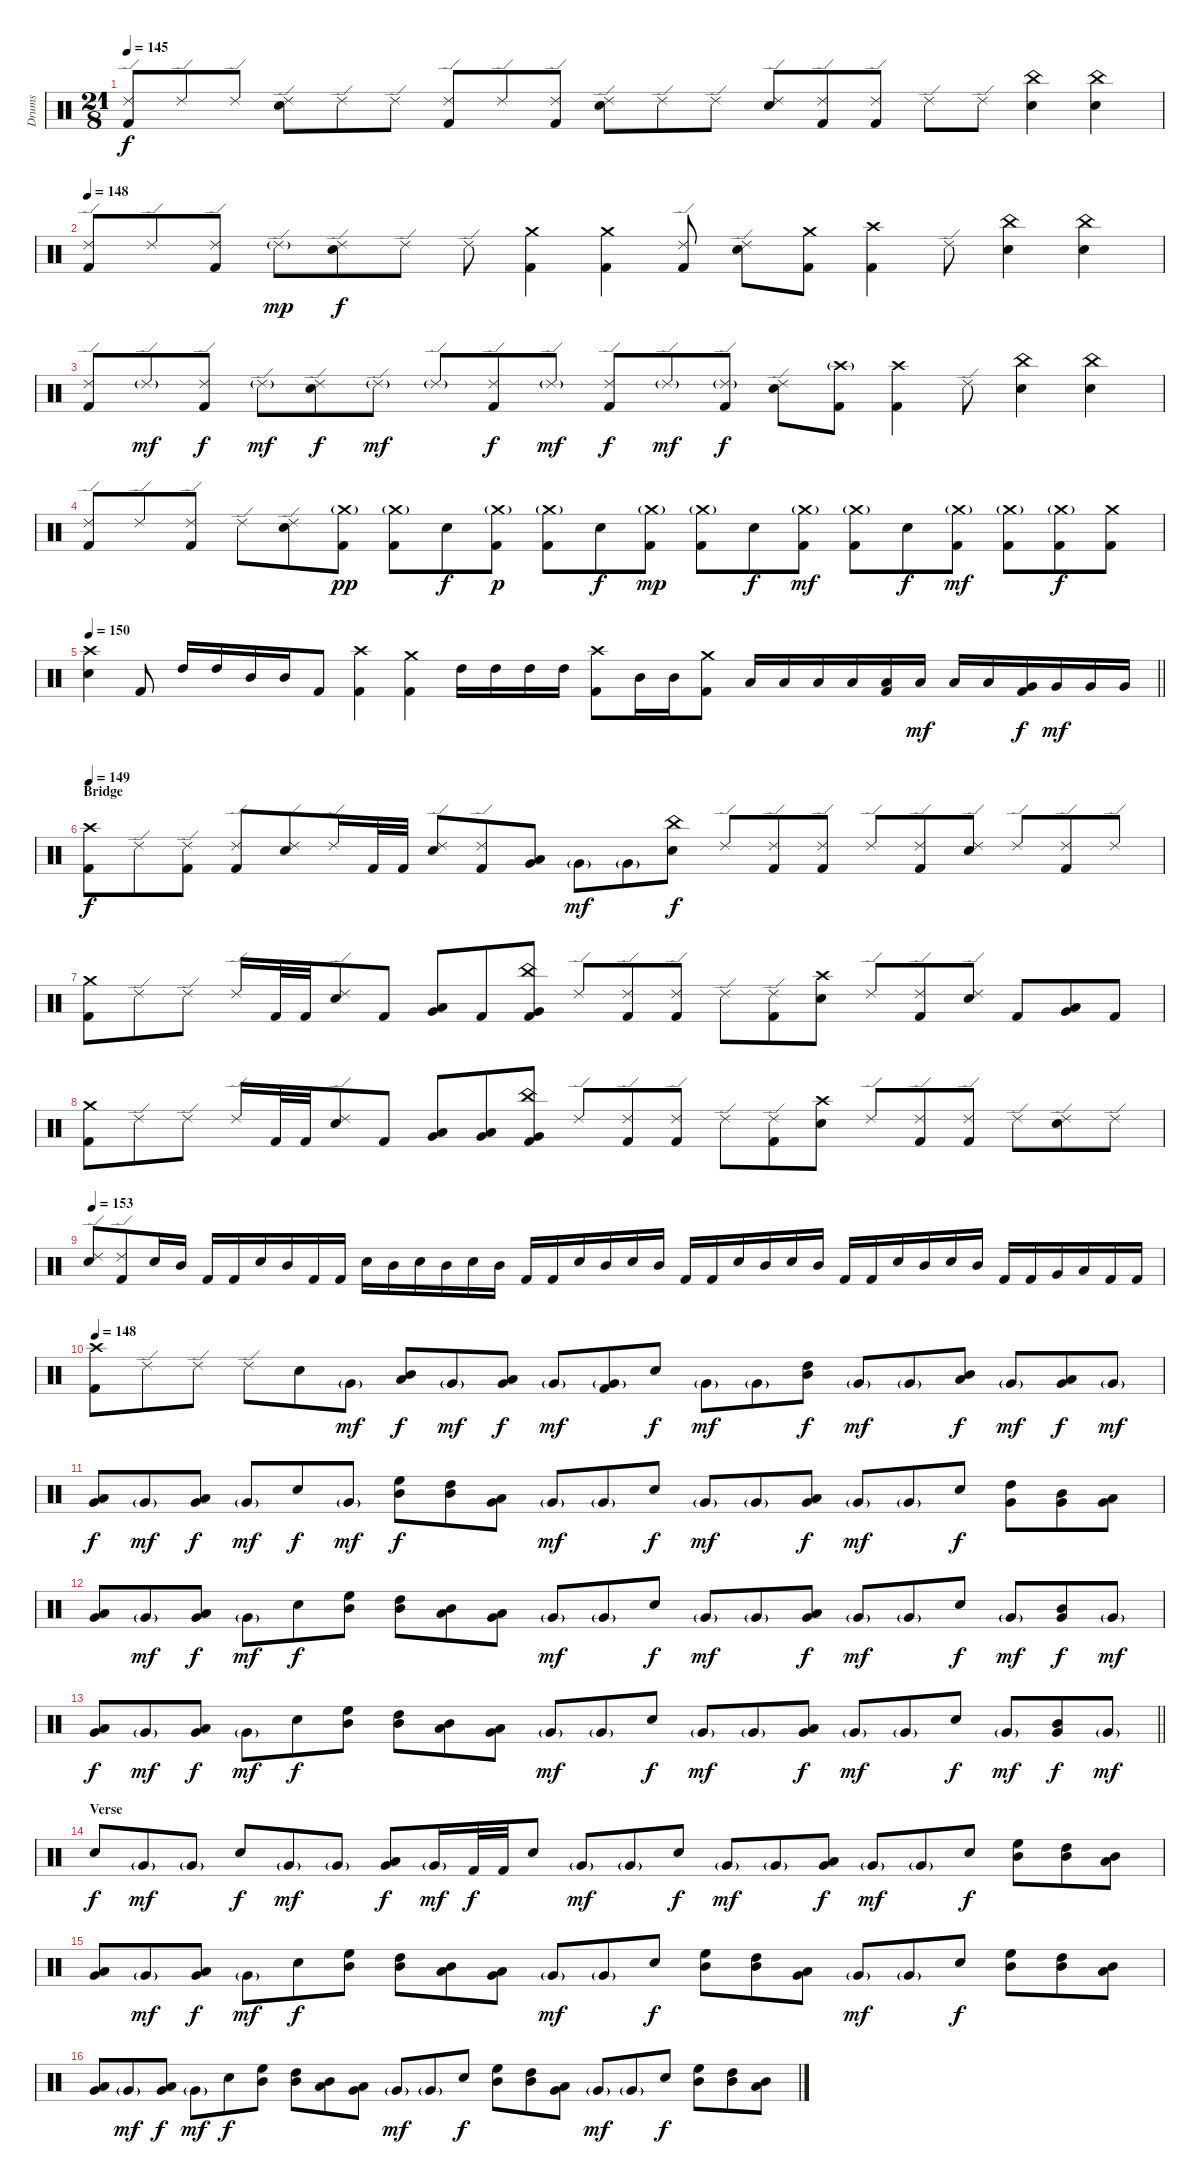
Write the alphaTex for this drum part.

\track ("Drums" "Drums") {instrument percussion}
\staff {score}
\articulation defaults
\ts (21 8)
\tempo 145
\clef neutral
\ks c
("Ride (edge) 2" "Kick (hit) 2").8{dy f} "Ride (edge) 2".8 "Ride (edge) 2".8 ("Ride (edge) 2" "Snare (hit) 2").8 "Ride (edge) 2".8 "Ride (edge) 2".8 ("Ride (edge) 2" "Kick (hit) 2").8 "Ride (edge) 2".8 ("Ride (edge) 2" "Kick (hit) 2").8 ("Ride (edge) 2" "Snare (hit) 2").8 "Ride (edge) 2".8 "Ride (edge) 2".8 ("Ride (edge) 2" "Snare (hit) 2").8 ("Ride (edge) 2" "Kick (hit) 2").8 ("Ride (edge) 2" "Kick (hit) 2").8 "Ride (edge) 2".8 "Ride (edge) 2".8 ("China (hit)" "Snare (hit) 2").4 ("China (hit)" "Snare (hit) 2").4 |
\tempo 148
("Ride (edge) 2" "Kick (hit) 2").8 "Ride (edge) 2".8 ("Ride (edge) 2" "Kick (hit) 2").8 "Ride (edge) 2"{g}.8{dy mp} ("Ride (edge) 2" "Snare (hit) 2").8{dy f} "Ride (edge) 2".8 "Ride (edge) 2".8 ("Crash medium (hit)" "Kick (hit) 2").4 ("Crash medium (hit)" "Kick (hit) 2").4 ("Ride (edge) 2" "Kick (hit) 2").8 ("Ride (edge) 2" "Snare (hit) 2").8 ("Crash medium (hit)" "Kick (hit) 2").8 ("Crash high (hit)" "Kick (hit) 2").4 "Ride (edge) 2".8 ("China (hit)" "Snare (hit) 2").4 ("China (hit)" "Snare (hit) 2").4 |
("Ride (edge) 2" "Kick (hit) 2").8 "Ride (edge) 2"{g}.8{dy mf} ("Ride (edge) 2" "Kick (hit) 2").8{dy f} "Ride (edge) 2"{g}.8{dy mf} ("Ride (edge) 2" "Snare (hit) 2").8{dy f} "Ride (edge) 2"{g}.8{dy mf} "Ride (edge) 2"{g}.8 ("Ride (edge) 2" "Kick (hit) 2").8{dy f} "Ride (edge) 2"{g}.8{dy mf} ("Ride (edge) 2" "Kick (hit) 2").8{dy f} "Ride (edge) 2"{g}.8{dy mf} ("Ride (edge) 2"{g} "Kick (hit) 2").8{dy f} ("Ride (edge) 2" "Snare (hit) 2").8 ("Crash high (hit)"{g} "Kick (hit) 2").8 ("Crash high (hit)" "Kick (hit) 2").4 "Ride (edge) 2".8 ("China (hit)" "Snare (hit) 2").4 ("China (hit)" "Snare (hit) 2").4 |
("Ride (edge) 2" "Kick (hit) 2").8 "Ride (edge) 2".8 ("Ride (edge) 2" "Kick (hit) 2").8 "Ride (edge) 2".8 ("Ride (edge) 2" "Snare (hit) 2").8 ("Crash medium (hit)"{g} "Kick (hit) 2").8{dy pp} ("Crash medium (hit)"{g} "Kick (hit) 2").8 "Snare (hit) 2".8{dy f} ("Crash medium (hit)"{g} "Kick (hit) 2").8{dy p} ("Crash medium (hit)"{g} "Kick (hit) 2").8 "Snare (hit) 2".8{dy f} ("Crash medium (hit)"{g} "Kick (hit) 2").8{dy mp} ("Crash medium (hit)"{g} "Kick (hit) 2").8 "Snare (hit) 2".8{dy f} ("Crash medium (hit)"{g} "Kick (hit) 2").8{dy mf} ("Crash medium (hit)"{g} "Kick (hit) 2").8 "Snare (hit) 2".8{dy f} ("Crash medium (hit)"{g} "Kick (hit) 2").8{dy mf} ("Crash medium (hit)"{g} "Kick (hit) 2").8 ("Crash medium (hit)"{g} "Kick (hit) 2").8{dy f} ("Crash medium (hit)" "Kick (hit) 2").8 |
\tempo 150
\barLineRight lightlight
("Crash high (hit)" "Snare (hit) 2").4 "Kick (hit) 2".8 "High Tom (hit)".16 "High Tom (hit)".16 "Mid Tom (hit)".16 "Mid Tom (hit)".16 "Kick (hit) 2".8 ("Crash high (hit)" "Kick (hit) 2").4 ("Crash medium (hit)" "Kick (hit) 2").4 "High Tom (hit)".16 "High Tom (hit)".16 "High Tom (hit)".16 "High Tom (hit)".16 ("Crash high (hit)" "Kick (hit) 2").8 "Mid Tom (hit)".16 "Mid Tom (hit)".16 ("Crash medium (hit)" "Kick (hit) 2").8 "Low Tom (hit)".16 "Low Tom (hit)".16 "Low Tom (hit)".16 "Low Tom (hit)".16 ("Low Tom (hit)" "Kick (hit) 2").16 "Low Tom (hit)".16{dy mf} "Low Tom (hit)".16 "Low Tom (hit)".16 ("Very Low Tom (hit)" "Kick (hit) 2").16{dy f} "Very Low Tom (hit)".16{dy mf} "Very Low Tom (hit)".16 "Very Low Tom (hit)".16 |
\section ("" "Bridge")
\tempo 149
("Crash high (hit)" "Kick (hit) 2").8{dy f} "Ride (edge) 2".8 ("Ride (edge) 2" "Kick (hit) 2").8 ("Ride (edge) 2" "Kick (hit) 2").8 ("Ride (edge) 2" "Snare (hit) 2").8 "Ride (edge) 2".16 "Kick (hit) 2".32 "Kick (hit) 2".32 ("Ride (edge) 2" "Snare (hit) 2").8 ("Ride (edge) 2" "Kick (hit) 2").8 ("Low Tom (hit)" "Very Low Tom (hit)").8 "Very Low Tom (hit)"{g}.8{dy mf} "Very Low Tom (hit)"{g}.8 ("China (hit)" "Snare (hit) 2").8{dy f} "Ride (edge) 2".8 ("Ride (edge) 2" "Kick (hit) 2").8 ("Ride (edge) 2" "Kick (hit) 2").8 "Ride (edge) 2".8 ("Ride (edge) 2" "Kick (hit) 2").8 ("Ride (edge) 2" "Snare (hit) 2").8 "Ride (edge) 2".8 ("Ride (edge) 2" "Kick (hit) 2").8 "Ride (edge) 2".8 |
("Crash medium (hit)" "Kick (hit) 2").8 "Ride (edge) 2".8 "Ride (edge) 2".8 "Ride (edge) 2".16 "Kick (hit) 2".32 "Kick (hit) 2".32 ("Ride (edge) 2" "Snare (hit) 2").8 "Kick (hit) 2".8 ("Low Tom (hit)" "Very Low Tom (hit)").8 "Kick (hit) 2".8 ("China (hit)" "Very Low Tom (hit)" "Kick (hit) 2").8 "Ride (edge) 2".8 ("Ride (edge) 2" "Kick (hit) 2").8 ("Ride (edge) 2" "Kick (hit) 2").8 "Ride (edge) 2".8 ("Ride (edge) 2" "Kick (hit) 2").8 ("Crash high (hit)" "Snare (hit) 2").8 "Ride (edge) 2".8 ("Ride (edge) 2" "Kick (hit) 2").8 ("Ride (edge) 2" "Snare (hit) 2").8 "Kick (hit) 2".8 ("Low Tom (hit)" "Very Low Tom (hit)").8 "Kick (hit) 2".8 |
("Crash medium (hit)" "Kick (hit) 2").8 "Ride (edge) 2".8 "Ride (edge) 2".8 "Ride (edge) 2".16 "Kick (hit) 2".32 "Kick (hit) 2".32 ("Ride (edge) 2" "Snare (hit) 2").8 "Kick (hit) 2".8 ("Low Tom (hit)" "Very Low Tom (hit)").8 ("Low Tom (hit)" "Very Low Tom (hit)").8 ("China (hit)" "Very Low Tom (hit)" "Kick (hit) 2").8 "Ride (edge) 2".8 ("Ride (edge) 2" "Kick (hit) 2").8 ("Ride (edge) 2" "Kick (hit) 2").8 "Ride (edge) 2".8 ("Ride (edge) 2" "Kick (hit) 2").8 ("Crash high (hit)" "Snare (hit) 2").8 "Ride (edge) 2".8 ("Ride (edge) 2" "Kick (hit) 2").8 ("Ride (edge) 2" "Kick (hit) 2").8 "Ride (edge) 2".8 ("Ride (edge) 2" "Snare (hit) 2").8 "Ride (edge) 2".8 |
\tempo 153
("Ride (edge) 2" "Snare (hit) 2").8 ("Ride (edge) 2" "Kick (hit) 2").8 "Snare (hit) 2".16 "Mid Tom (hit)".16 "Kick (hit) 2".16 "Kick (hit) 2".16 "Snare (hit) 2".16 "Mid Tom (hit)".16 "Kick (hit) 2".16 "Kick (hit) 2".16 "Snare (hit) 2".16 "Mid Tom (hit)".16 "Snare (hit) 2".16 "Mid Tom (hit)".16 "Snare (hit) 2".16 "Mid Tom (hit)".16 "Kick (hit) 2".16 "Kick (hit) 2".16 "Snare (hit) 2".16 "Mid Tom (hit)".16 "Snare (hit) 2".16 "Mid Tom (hit)".16 "Kick (hit) 2".16 "Kick (hit) 2".16 "Snare (hit) 2".16 "Mid Tom (hit)".16 "Snare (hit) 2".16 "Mid Tom (hit)".16 "Kick (hit) 2".16 "Kick (hit) 2".16 "Snare (hit) 2".16 "Mid Tom (hit)".16 "Snare (hit) 2".16 "Mid Tom (hit)".16 "Kick (hit) 2".16 "Kick (hit) 2".16 "Very Low Tom (hit)".16 "Low Tom (hit)".16 "Kick (hit) 2".16 "Kick (hit) 2".16 |
\tempo 148
("Crash high (hit)" "Kick (hit) 2").8 "Ride (edge) 2".8 "Ride (edge) 2".8 "Ride (edge) 2".8 "Snare (hit) 2".8 "Very Low Tom (hit)"{g}.8{dy mf} ("Mid Tom (hit)" "Low Tom (hit)").8{dy f} "Very Low Tom (hit)"{g}.8{dy mf} ("Low Tom (hit)" "Very Low Tom (hit)").8{dy f} "Very Low Tom (hit)"{g}.8{dy mf} ("Very Low Tom (hit)"{g} "Kick (hit) 2").8 "Snare (hit) 2".8{dy f} "Very Low Tom (hit)"{g}.8{dy mf} "Very Low Tom (hit)"{g}.8 ("High Tom (hit)" "Mid Tom (hit)").8{dy f} "Very Low Tom (hit)"{g}.8{dy mf} "Very Low Tom (hit)"{g}.8 ("Mid Tom (hit)" "Low Tom (hit)").8{dy f} "Very Low Tom (hit)"{g}.8{dy mf} ("Low Tom (hit)" "Very Low Tom (hit)").8{dy f} "Very Low Tom (hit)"{g}.8{dy mf} |
("Low Tom (hit)" "Very Low Tom (hit)").8{dy f} "Very Low Tom (hit)"{g}.8{dy mf} ("Low Tom (hit)" "Very Low Tom (hit)").8{dy f} "Very Low Tom (hit)"{g}.8{dy mf} "Snare (hit) 2".8{dy f} "Very Low Tom (hit)"{g}.8{dy mf} ("High Floor Tom (hit)" "Mid Tom (hit)").8{dy f} ("High Tom (hit)" "Mid Tom (hit)").8 ("Low Tom (hit)" "Very Low Tom (hit)").8 "Very Low Tom (hit)"{g}.8{dy mf} "Very Low Tom (hit)"{g}.8 "Snare (hit) 2".8{dy f} "Very Low Tom (hit)"{g}.8{dy mf} "Very Low Tom (hit)"{g}.8 ("Low Tom (hit)" "Very Low Tom (hit)").8{dy f} "Very Low Tom (hit)"{g}.8{dy mf} "Very Low Tom (hit)"{g}.8 "Snare (hit) 2".8{dy f} ("High Tom (hit)" "Very Low Tom (hit)").8 ("Mid Tom (hit)" "Very Low Tom (hit)").8 ("Low Tom (hit)" "Very Low Tom (hit)").8 |
("Low Tom (hit)" "Very Low Tom (hit)").8 "Very Low Tom (hit)"{g}.8{dy mf} ("Low Tom (hit)" "Very Low Tom (hit)").8{dy f} "Very Low Tom (hit)"{g}.8{dy mf} "Snare (hit) 2".8{dy f} ("High Floor Tom (hit)" "Mid Tom (hit)").8 ("High Tom (hit)" "Mid Tom (hit)").8 ("Mid Tom (hit)" "Low Tom (hit)").8 ("Low Tom (hit)" "Very Low Tom (hit)").8 "Very Low Tom (hit)"{g}.8{dy mf} "Very Low Tom (hit)"{g}.8 "Snare (hit) 2".8{dy f} "Very Low Tom (hit)"{g}.8{dy mf} "Very Low Tom (hit)"{g}.8 ("Low Tom (hit)" "Very Low Tom (hit)").8{dy f} "Very Low Tom (hit)"{g}.8{dy mf} "Very Low Tom (hit)"{g}.8 "Snare (hit) 2".8{dy f} "Very Low Tom (hit)"{g}.8{dy mf} ("Mid Tom (hit)" "Very Low Tom (hit)").8{dy f} "Very Low Tom (hit)"{g}.8{dy mf} |
\barLineRight lightlight
("Low Tom (hit)" "Very Low Tom (hit)").8{dy f} "Very Low Tom (hit)"{g}.8{dy mf} ("Low Tom (hit)" "Very Low Tom (hit)").8{dy f} "Very Low Tom (hit)"{g}.8{dy mf} "Snare (hit) 2".8{dy f} ("High Floor Tom (hit)" "Mid Tom (hit)").8 ("High Tom (hit)" "Mid Tom (hit)").8 ("Mid Tom (hit)" "Low Tom (hit)").8 ("Low Tom (hit)" "Very Low Tom (hit)").8 "Very Low Tom (hit)"{g}.8{dy mf} "Very Low Tom (hit)"{g}.8 "Snare (hit) 2".8{dy f} "Very Low Tom (hit)"{g}.8{dy mf} "Very Low Tom (hit)"{g}.8 ("Low Tom (hit)" "Very Low Tom (hit)").8{dy f} "Very Low Tom (hit)"{g}.8{dy mf} "Very Low Tom (hit)"{g}.8 "Snare (hit) 2".8{dy f} "Very Low Tom (hit)"{g}.8{dy mf} ("Mid Tom (hit)" "Very Low Tom (hit)").8{dy f} "Very Low Tom (hit)"{g}.8{dy mf} |
\section ("" "Verse")
"Snare (hit) 2".8{dy f} "Very Low Tom (hit)"{g}.8{dy mf} "Very Low Tom (hit)"{g}.8 "Snare (hit) 2".8{dy f} "Very Low Tom (hit)"{g}.8{dy mf} "Very Low Tom (hit)"{g}.8 ("Low Tom (hit)" "Very Low Tom (hit)").8{dy f} "Very Low Tom (hit)"{g}.16{dy mf} "Kick (hit) 2".32{dy f} "Kick (hit) 2".32 "Snare (hit) 2".8 "Very Low Tom (hit)"{g}.8{dy mf} "Very Low Tom (hit)"{g}.8 "Snare (hit) 2".8{dy f} "Very Low Tom (hit)"{g}.8{dy mf} "Very Low Tom (hit)"{g}.8 ("Low Tom (hit)" "Very Low Tom (hit)").8{dy f} "Very Low Tom (hit)"{g}.8{dy mf} "Very Low Tom (hit)"{g}.8 "Snare (hit) 2".8{dy f} ("High Floor Tom (hit)" "Mid Tom (hit)").8 ("High Tom (hit)" "Mid Tom (hit)").8 ("Mid Tom (hit)" "Low Tom (hit)").8 |
("Low Tom (hit)" "Very Low Tom (hit)").8 "Very Low Tom (hit)"{g}.8{dy mf} ("Low Tom (hit)" "Very Low Tom (hit)").8{dy f} "Very Low Tom (hit)"{g}.8{dy mf} "Snare (hit) 2".8{dy f} ("High Floor Tom (hit)" "Mid Tom (hit)").8 ("High Tom (hit)" "Mid Tom (hit)").8 ("Mid Tom (hit)" "Low Tom (hit)").8 ("Low Tom (hit)" "Very Low Tom (hit)").8 "Very Low Tom (hit)"{g}.8{dy mf} "Very Low Tom (hit)"{g}.8 "Snare (hit) 2".8{dy f} ("High Floor Tom (hit)" "Mid Tom (hit)").8 ("High Tom (hit)" "Mid Tom (hit)").8 ("Low Tom (hit)" "Very Low Tom (hit)").8 "Very Low Tom (hit)"{g}.8{dy mf} "Very Low Tom (hit)"{g}.8 "Snare (hit) 2".8{dy f} ("High Floor Tom (hit)" "Mid Tom (hit)").8 ("High Tom (hit)" "Mid Tom (hit)").8 ("Mid Tom (hit)" "Low Tom (hit)").8 |
("Low Tom (hit)" "Very Low Tom (hit)").8 "Very Low Tom (hit)"{g}.8{dy mf} ("Low Tom (hit)" "Very Low Tom (hit)").8{dy f} "Very Low Tom (hit)"{g}.8{dy mf} "Snare (hit) 2".8{dy f} ("High Floor Tom (hit)" "Mid Tom (hit)").8 ("High Tom (hit)" "Mid Tom (hit)").8 ("Mid Tom (hit)" "Low Tom (hit)").8 ("Low Tom (hit)" "Very Low Tom (hit)").8 "Very Low Tom (hit)"{g}.8{dy mf} "Very Low Tom (hit)"{g}.8 "Snare (hit) 2".8{dy f} ("High Floor Tom (hit)" "Mid Tom (hit)").8 ("High Tom (hit)" "Mid Tom (hit)").8 ("Low Tom (hit)" "Very Low Tom (hit)").8 "Very Low Tom (hit)"{g}.8{dy mf} "Very Low Tom (hit)"{g}.8 "Snare (hit) 2".8{dy f} ("High Floor Tom (hit)" "Mid Tom (hit)").8 ("High Tom (hit)" "Mid Tom (hit)").8 ("Mid Tom (hit)" "Low Tom (hit)").8
